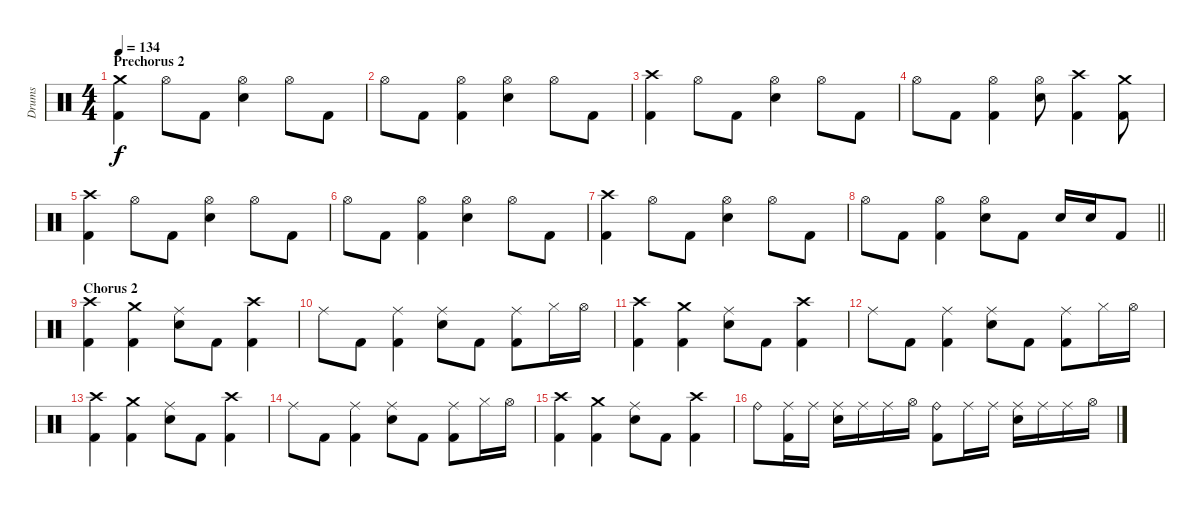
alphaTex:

\track ("Drums" "Drums") {instrument percussion}
\staff {score}
\articulation defaults
\ts (4 4)
\section ("" "Prechorus 2")
\tempo 134
\clef neutral
\ks c
("Crash medium (hit)" "Kick (hit) 2").4{dy f} "Hi-Hat (open)".8 "Kick (hit) 2".8 ("Hi-Hat (open)" "Snare (hit) 2").4 "Hi-Hat (open)".8 "Kick (hit) 2".8 |
"Hi-Hat (open)".8 "Kick (hit) 2".8 ("Hi-Hat (open)" "Kick (hit) 2").4 ("Hi-Hat (open)" "Snare (hit) 2").4 "Hi-Hat (open)".8 "Kick (hit) 2".8 |
("Crash high (hit)" "Kick (hit) 2").4 "Hi-Hat (open)".8 "Kick (hit) 2".8 ("Hi-Hat (open)" "Snare (hit) 2").4 "Hi-Hat (open)".8 "Kick (hit) 2".8 |
"Hi-Hat (open)".8 "Kick (hit) 2".8 ("Hi-Hat (open)" "Kick (hit) 2").4 ("Hi-Hat (open)" "Snare (hit) 2").8 ("Crash high (hit)" "Kick (hit) 2").4 ("Crash medium (hit)" "Kick (hit) 2").8 |
("Crash high (hit)" "Kick (hit) 2").4 "Hi-Hat (open)".8 "Kick (hit) 2".8 ("Hi-Hat (open)" "Snare (hit) 2").4 "Hi-Hat (open)".8 "Kick (hit) 2".8 |
"Hi-Hat (open)".8 "Kick (hit) 2".8 ("Hi-Hat (open)" "Kick (hit) 2").4 ("Hi-Hat (open)" "Snare (hit) 2").4 "Hi-Hat (open)".8 "Kick (hit) 2".8 |
("Crash high (hit)" "Kick (hit) 2").4 "Hi-Hat (open)".8 "Kick (hit) 2".8 ("Hi-Hat (open)" "Snare (hit) 2").4 "Hi-Hat (open)".8 "Kick (hit) 2".8 |
\barLineRight lightlight "Hi-Hat (open)".8 "Kick (hit) 2".8
("Hi-Hat (open)" "Kick (hit) 2").4 ("Hi-Hat (open)" "Snare (hit) 2").8 "Kick (hit) 2".8 "Snare (hit) 2".16 "Snare (hit) 2".16 "Kick (hit) 2".8 |
\section ("" "Chorus 2")
("Crash high (hit)" "Kick (hit) 2").4 ("Crash medium (hit)" "Kick (hit) 2").4 ("Ride (middle)" "Snare (hit) 2").8 "Kick (hit) 2".8 ("Crash high (hit)" "Kick (hit) 2").4 |
"Ride (middle)".8 "Kick (hit) 2".8 ("Ride (middle)" "Kick (hit) 2").4 ("Ride (middle)" "Snare (hit) 2").8 "Kick (hit) 2".8 ("Ride (middle)" "Kick (hit) 2").8 "Hi-Hat (closed)".16 "Hi-Hat (open)".16 |
("Crash high (hit)" "Kick (hit) 2").4 ("Crash medium (hit)" "Kick (hit) 2").4 ("Ride (middle)" "Snare (hit) 2").8 "Kick (hit) 2".8 ("Crash high (hit)" "Kick (hit) 2").4 |
"Ride (middle)".8 "Kick (hit) 2".8 ("Ride (middle)" "Kick (hit) 2").4 ("Ride (middle)" "Snare (hit) 2").8 "Kick (hit) 2".8 ("Ride (middle)" "Kick (hit) 2").8 "Hi-Hat (closed)".16 "Hi-Hat (open)".16 |
("Crash high (hit)" "Kick (hit) 2").4 ("Crash medium (hit)" "Kick (hit) 2").4 ("Ride (middle)" "Snare (hit) 2").8 "Kick (hit) 2".8 ("Crash high (hit)" "Kick (hit) 2").4 |
"Ride (middle)".8 "Kick (hit) 2".8 ("Ride (middle)" "Kick (hit) 2").4 ("Ride (middle)" "Snare (hit) 2").8 "Kick (hit) 2".8 ("Ride (middle)" "Kick (hit) 2").8 "Hi-Hat (closed)".16 "Hi-Hat (open)".16 |
("Crash high (hit)" "Kick (hit) 2").4 ("Crash medium (hit)" "Kick (hit) 2").4 ("Ride (middle)" "Snare (hit) 2").8 "Kick (hit) 2".8 ("Crash high (hit)" "Kick (hit) 2").4 |
"Ride (bell)".8 ("Ride (middle)" "Kick (hit) 2").16 "Ride (middle)".16 ("Ride (middle)" "Snare (hit) 2").16 "Ride (middle)".16 "Ride (middle)".16 "Hi-Hat (open)".16 ("Ride (bell)" "Kick (hit) 2").8 "Ride (middle)".16 "Ride (middle)".16 ("Ride (middle)" "Snare (hit) 2").16 "Ride (middle)".16 "Ride (middle)".16 "Hi-Hat (open)".16
